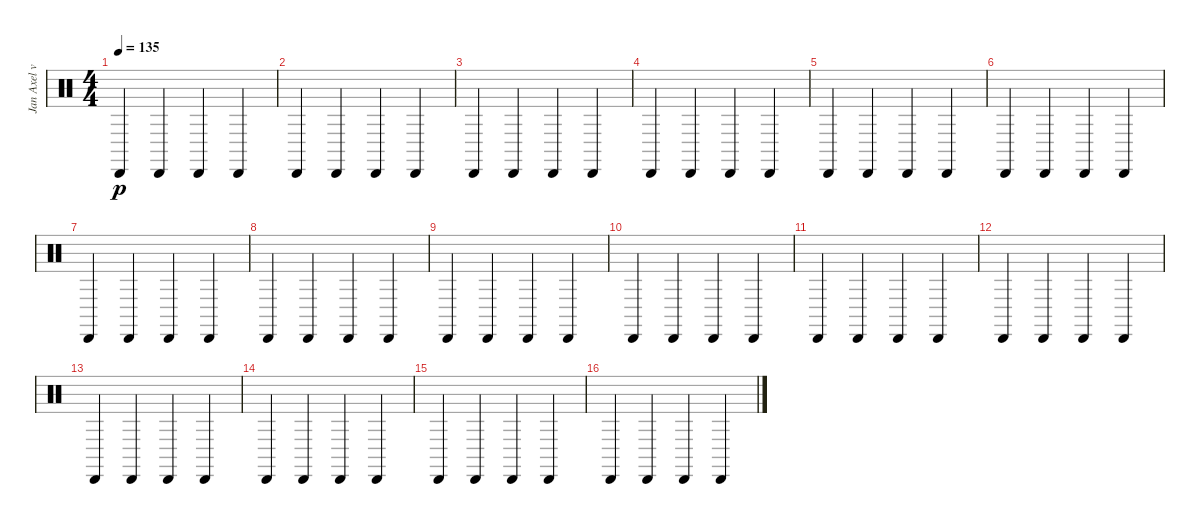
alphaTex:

\track ("Jan Axel von Bloomberg : Drums" "Jan Axel v") {instrument percussion}
\staff {score}
\articulation defaults
\ts (4 4)
\tempo 135
\clef neutral
\ks c "Cabasa (hit)".4{dy p balance 0} "Cabasa (hit)".4{balance 16} "Cabasa (hit)".4{balance 0} "Cabasa (hit)".4{balance 16}
|
"Cabasa (hit)".4{balance 0} "Cabasa (hit)".4{balance 16} "Cabasa (hit)".4{balance 0} "Cabasa (hit)".4{balance 16} |
"Cabasa (hit)".4{balance 0} "Cabasa (hit)".4{balance 16} "Cabasa (hit)".4{balance 0} "Cabasa (hit)".4{balance 16} |
"Cabasa (hit)".4{balance 0} "Cabasa (hit)".4{balance 16} "Cabasa (hit)".4{balance 0} "Cabasa (hit)".4{balance 16} |
"Cabasa (hit)".4{balance 0} "Cabasa (hit)".4{balance 16} "Cabasa (hit)".4{balance 0} "Cabasa (hit)".4{balance 16} |
"Cabasa (hit)".4{balance 0} "Cabasa (hit)".4{balance 16} "Cabasa (hit)".4{balance 0} "Cabasa (hit)".4{balance 16} |
"Cabasa (hit)".4{balance 0} "Cabasa (hit)".4{balance 16} "Cabasa (hit)".4{balance 0} "Cabasa (hit)".4{balance 16} |
"Cabasa (hit)".4{balance 0} "Cabasa (hit)".4{balance 16} "Cabasa (hit)".4{balance 0} "Cabasa (hit)".4{balance 16} |
"Cabasa (hit)".4{balance 0} "Cabasa (hit)".4{balance 16} "Cabasa (hit)".4{balance 0} "Cabasa (hit)".4{balance 16} |
"Cabasa (hit)".4{balance 0} "Cabasa (hit)".4{balance 16} "Cabasa (hit)".4{balance 0} "Cabasa (hit)".4{balance 16} |
"Cabasa (hit)".4{balance 0} "Cabasa (hit)".4{balance 16} "Cabasa (hit)".4{balance 0} "Cabasa (hit)".4{balance 16} |
"Cabasa (hit)".4{balance 0} "Cabasa (hit)".4{balance 16} "Cabasa (hit)".4{balance 0} "Cabasa (hit)".4{balance 16} |
"Cabasa (hit)".4{balance 0} "Cabasa (hit)".4{balance 16} "Cabasa (hit)".4{balance 0} "Cabasa (hit)".4{balance 16} |
"Cabasa (hit)".4{balance 0} "Cabasa (hit)".4{balance 16} "Cabasa (hit)".4{balance 0} "Cabasa (hit)".4{balance 16} |
"Cabasa (hit)".4{balance 0} "Cabasa (hit)".4{balance 16} "Cabasa (hit)".4{balance 0} "Cabasa (hit)".4{balance 16} |
"Cabasa (hit)".4{balance 0} "Cabasa (hit)".4{balance 16} "Cabasa (hit)".4{balance 0} "Cabasa (hit)".4{balance 16}
